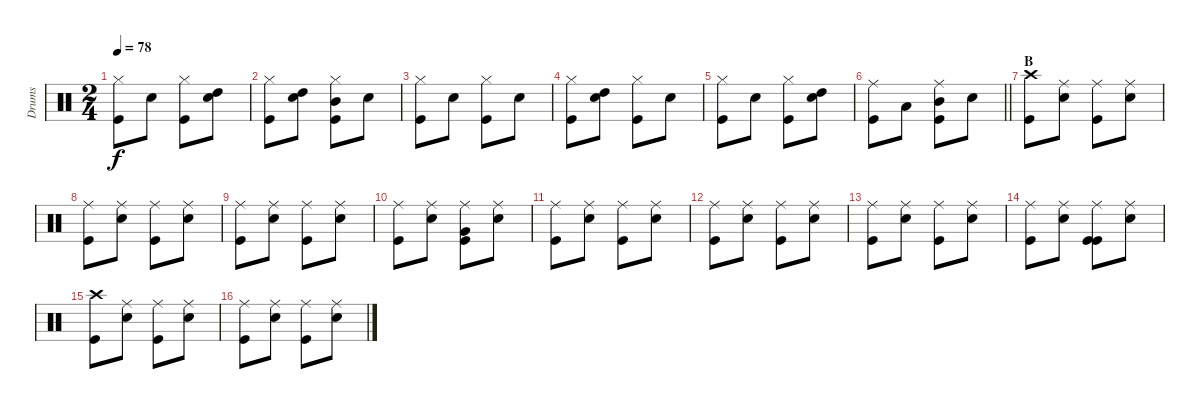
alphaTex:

\track ("Drums" "Drums") {instrument percussion}
\staff {score}
\articulation defaults
\ts (2 4)
\tempo 78
\clef neutral
\ks c
("Hi-Hat (closed)" "Kick (hit)").8{dy f} "Electric Snare (hit)".8 ("Hi-Hat (closed)" "Kick (hit)").8 ("High Tom (hit)" "Electric Snare (hit)").8 |
("Hi-Hat (closed)" "Kick (hit)").8 ("High Tom (hit)" "Electric Snare (hit)").8 ("Hi-Hat (closed)" "Mid Tom (hit)" "Kick (hit)").8 "Electric Snare (hit)".8 |
("Hi-Hat (closed)" "Kick (hit)").8 "Electric Snare (hit)".8 ("Hi-Hat (closed)" "Kick (hit)").8 "Electric Snare (hit)".8 |
("Hi-Hat (closed)" "Kick (hit)").8 ("High Tom (hit)" "Electric Snare (hit)").8 ("Hi-Hat (closed)" "Kick (hit)").8 "Electric Snare (hit)".8 |
("Hi-Hat (closed)" "Kick (hit)").8 "Electric Snare (hit)".8 ("Hi-Hat (closed)" "Kick (hit)").8 ("High Tom (hit)" "Electric Snare (hit)").8 |
\barLineRight lightlight
("Ride (middle)" "Kick (hit)").8 "Low Tom (hit)".8 ("Ride (middle)" "Mid Tom (hit)" "Kick (hit)").8 "Electric Snare (hit)".8 |
\section ("" "B")
("Crash high (hit)" "Kick (hit)").8 ("Ride (middle)" "Electric Snare (hit)").8 ("Ride (middle)" "Kick (hit)").8 ("Ride (middle)" "Electric Snare (hit)").8 |
("Ride (middle)" "Kick (hit)").8 ("Ride (middle)" "Electric Snare (hit)").8 ("Ride (middle)" "Kick (hit)").8 ("Ride (middle)" "Electric Snare (hit)").8 |
("Ride (middle)" "Kick (hit)").8 ("Ride (middle)" "Electric Snare (hit)").8 ("Ride (middle)" "Kick (hit)").8 ("Ride (middle)" "Electric Snare (hit)").8 |
("Ride (middle)" "Kick (hit)").8 ("Ride (middle)" "Electric Snare (hit)").8 ("Ride (middle)" "Very Low Tom (hit)" "Kick (hit)").8 ("Ride (middle)" "Electric Snare (hit)").8 |
("Ride (middle)" "Kick (hit)").8 ("Ride (middle)" "Electric Snare (hit)").8 ("Ride (middle)" "Kick (hit)").8 ("Ride (middle)" "Electric Snare (hit)").8 |
("Ride (middle)" "Kick (hit)").8 ("Ride (middle)" "Electric Snare (hit)").8 ("Ride (middle)" "Kick (hit)").8 ("Ride (middle)" "Electric Snare (hit)").8 |
("Ride (middle)" "Kick (hit)").8 ("Ride (middle)" "Electric Snare (hit)").8 ("Ride (middle)" "Kick (hit)").8 ("Ride (middle)" "Electric Snare (hit)").8 |
("Ride (middle)" "Kick (hit)").8 ("Ride (middle)" "Electric Snare (hit)").8 ("Ride (middle)" "Kick (hit)" "Kick (hit)").8 ("Ride (middle)" "Electric Snare (hit)").8 |
("Crash high (hit)" "Kick (hit)").8 ("Ride (middle)" "Electric Snare (hit)").8 ("Ride (middle)" "Kick (hit)").8 ("Ride (middle)" "Electric Snare (hit)").8 |
("Ride (middle)" "Kick (hit)").8 ("Ride (middle)" "Electric Snare (hit)").8 ("Ride (middle)" "Kick (hit)").8 ("Ride (middle)" "Electric Snare (hit)").8
